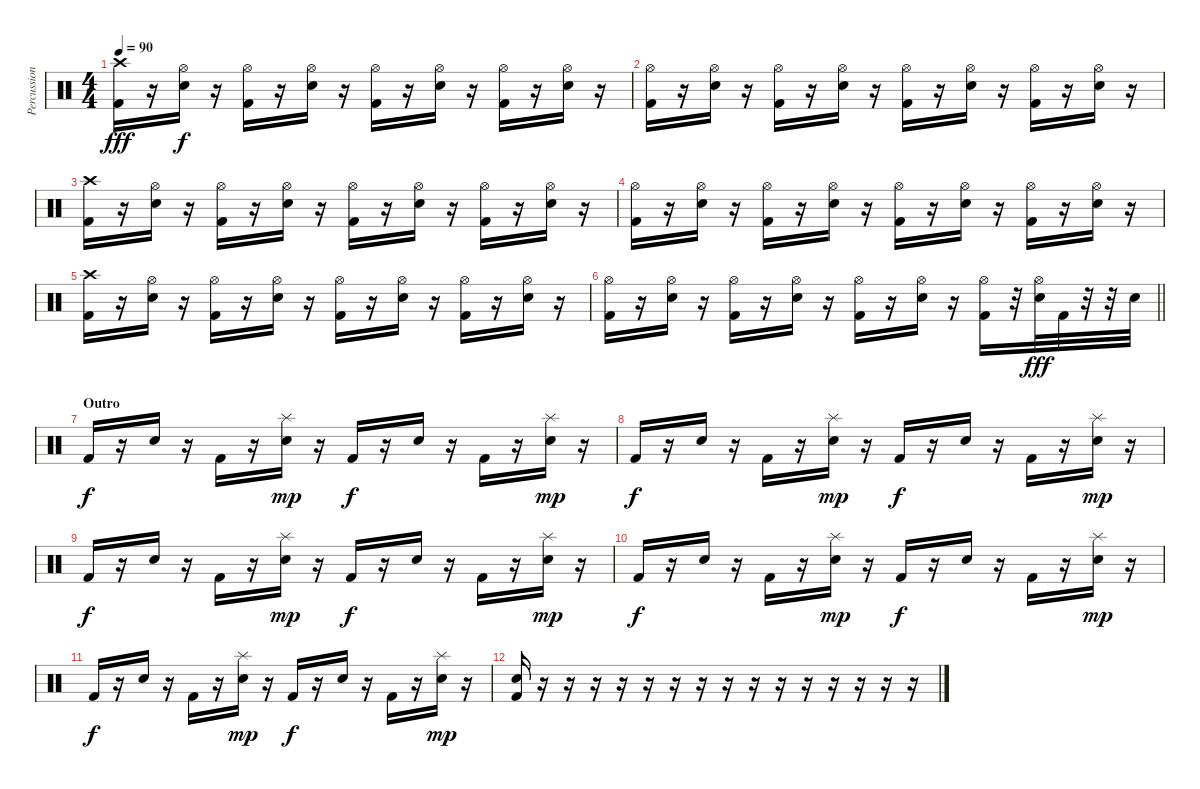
\track ("Percussion" "Percussion") {instrument percussion}
\staff {score}
\articulation defaults
\ts (4 4)
\tempo 90
\clef neutral
\ks c
("Crash high (hit)" "Kick (hit) 2").16{dy fff} r.16 ("Hi-Hat (open)" "Electric Snare (hit)").16{dy f} r.16 ("Hi-Hat (open)" "Kick (hit) 2").16 r.16 ("Hi-Hat (open)" "Electric Snare (hit)").16 r.16 ("Hi-Hat (open)" "Kick (hit) 2").16 r.16 ("Hi-Hat (open)" "Electric Snare (hit)").16 r.16 ("Hi-Hat (open)" "Kick (hit) 2").16 r.16 ("Hi-Hat (open)" "Electric Snare (hit)").16 r.16 |
("Hi-Hat (open)" "Kick (hit) 2").16 r.16 ("Hi-Hat (open)" "Electric Snare (hit)").16 r.16 ("Hi-Hat (open)" "Kick (hit) 2").16 r.16 ("Hi-Hat (open)" "Electric Snare (hit)").16 r.16 ("Hi-Hat (open)" "Kick (hit) 2").16 r.16 ("Hi-Hat (open)" "Electric Snare (hit)").16 r.16 ("Hi-Hat (open)" "Kick (hit) 2").16 r.16 ("Hi-Hat (open)" "Electric Snare (hit)").16 r.16 |
("Crash high (hit)" "Kick (hit) 2").16 r.16 ("Hi-Hat (open)" "Electric Snare (hit)").16 r.16 ("Hi-Hat (open)" "Kick (hit) 2").16 r.16 ("Hi-Hat (open)" "Electric Snare (hit)").16 r.16 ("Hi-Hat (open)" "Kick (hit) 2").16 r.16 ("Hi-Hat (open)" "Electric Snare (hit)").16 r.16 ("Hi-Hat (open)" "Kick (hit) 2").16 r.16 ("Hi-Hat (open)" "Electric Snare (hit)").16 r.16 |
("Hi-Hat (open)" "Kick (hit) 2").16 r.16 ("Hi-Hat (open)" "Electric Snare (hit)").16 r.16 ("Hi-Hat (open)" "Kick (hit) 2").16 r.16 ("Hi-Hat (open)" "Electric Snare (hit)").16 r.16 ("Hi-Hat (open)" "Kick (hit) 2").16 r.16 ("Hi-Hat (open)" "Electric Snare (hit)").16 r.16 ("Hi-Hat (open)" "Kick (hit) 2").16 r.16 ("Hi-Hat (open)" "Electric Snare (hit)").16 r.16 |
("Crash high (hit)" "Kick (hit) 2").16 r.16 ("Hi-Hat (open)" "Electric Snare (hit)").16 r.16 ("Hi-Hat (open)" "Kick (hit) 2").16 r.16 ("Hi-Hat (open)" "Electric Snare (hit)").16 r.16 ("Hi-Hat (open)" "Kick (hit) 2").16 r.16 ("Hi-Hat (open)" "Electric Snare (hit)").16 r.16 ("Hi-Hat (open)" "Kick (hit) 2").16 r.16 ("Hi-Hat (open)" "Electric Snare (hit)").16 r.16 |
\barLineRight lightlight
("Hi-Hat (open)" "Kick (hit) 2").16 r.16 ("Hi-Hat (open)" "Electric Snare (hit)").16 r.16 ("Hi-Hat (open)" "Kick (hit) 2").16 r.16 ("Hi-Hat (open)" "Electric Snare (hit)").16 r.16 ("Hi-Hat (open)" "Kick (hit) 2").16 r.16 ("Hi-Hat (open)" "Electric Snare (hit)").16 r.16 ("Hi-Hat (open)" "Kick (hit) 2").16 r.32 ("Hi-Hat (open)" "Electric Snare (hit)").32{dy fff} "Kick (hit) 2".32 r.32 r.32 "Electric Snare (hit)".32 |
\section ("" "Outro")
"Kick (hit) 2".16{dy f} r.16 "Electric Snare (hit)".16 r.16 "Kick (hit) 2".16 r.16 ("Splash (hit)" "Electric Snare (hit)").16{dy mp} r.16 "Kick (hit) 2".16{dy f} r.16 "Electric Snare (hit)".16 r.16 "Kick (hit) 2".16 r.16 ("Splash (hit)" "Electric Snare (hit)").16{dy mp} r.16 |
"Kick (hit) 2".16{dy f} r.16 "Electric Snare (hit)".16 r.16 "Kick (hit) 2".16 r.16 ("Splash (hit)" "Electric Snare (hit)").16{dy mp} r.16 "Kick (hit) 2".16{dy f} r.16 "Electric Snare (hit)".16 r.16 "Kick (hit) 2".16 r.16 ("Splash (hit)" "Electric Snare (hit)").16{dy mp} r.16 |
"Kick (hit) 2".16{dy f} r.16 "Electric Snare (hit)".16 r.16 "Kick (hit) 2".16 r.16 ("Splash (hit)" "Electric Snare (hit)").16{dy mp} r.16 "Kick (hit) 2".16{dy f} r.16 "Electric Snare (hit)".16 r.16 "Kick (hit) 2".16 r.16 ("Splash (hit)" "Electric Snare (hit)").16{dy mp} r.16 |
"Kick (hit) 2".16{dy f} r.16 "Electric Snare (hit)".16 r.16 "Kick (hit) 2".16 r.16 ("Splash (hit)" "Electric Snare (hit)").16{dy mp} r.16 "Kick (hit) 2".16{dy f} r.16 "Electric Snare (hit)".16 r.16 "Kick (hit) 2".16 r.16 ("Splash (hit)" "Electric Snare (hit)").16{dy mp} r.16 |
"Kick (hit) 2".16{dy f} r.16 "Electric Snare (hit)".16 r.16 "Kick (hit) 2".16 r.16 ("Splash (hit)" "Electric Snare (hit)").16{dy mp} r.16 "Kick (hit) 2".16{dy f} r.16 "Electric Snare (hit)".16 r.16 "Kick (hit) 2".16 r.16 ("Splash (hit)" "Electric Snare (hit)").16{dy mp} r.16 |
("Electric Snare (hit)" "Kick (hit) 2").16 r.16 r.16 r.16 r.16 r.16 r.16 r.16 r.16 r.16 r.16 r.16 r.16 r.16 r.16 r.16
